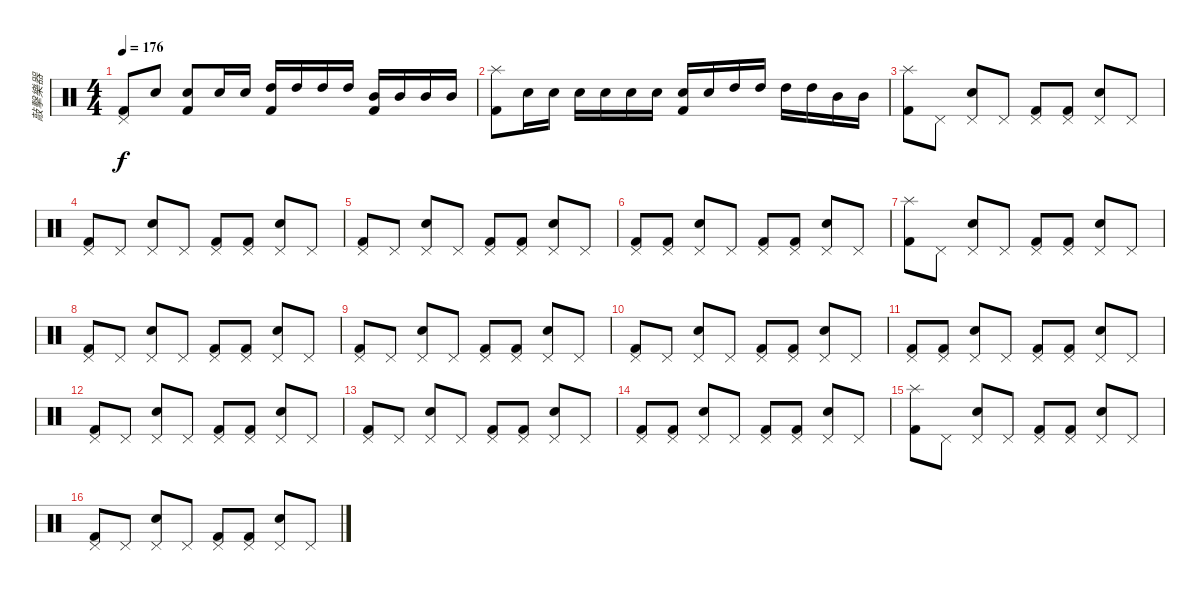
\track ("敲擊樂器" "敲擊樂器") {instrument percussion}
\staff {score}
\articulation defaults
\ts (4 4)
\tempo 176
\clef neutral
\ks c
("Pedal Hi-Hat (hit)" "Kick (hit) 2").8{dy f} "Snare (hit) 2".8 ("Kick (hit) 2" "Snare (hit) 2").8 "Snare (hit) 2".16 "Snare (hit) 2".16 ("High Tom (hit)" "Kick (hit) 2").16 "High Tom (hit)".16 "High Tom (hit)".16 "High Tom (hit)".16 ("Mid Tom (hit)" "Kick (hit) 2").16 "Mid Tom (hit)".16 "Mid Tom (hit)".16 "Mid Tom (hit)".16 |
("Splash (hit)" "Kick (hit) 2").8 "Snare (hit) 2".16 "Snare (hit) 2".16 "Snare (hit) 2".16 "Snare (hit) 2".16 "Snare (hit) 2".16 "Snare (hit) 2".16 ("Snare (hit) 2" "Kick (hit) 2").16 "Snare (hit) 2".16 "High Tom (hit)".16 "High Tom (hit)".16 "High Tom (hit)".16 "High Tom (hit)".16 "Mid Tom (hit)".16 "Mid Tom (hit)".16 |
("Splash (hit)" "Kick (hit) 2").8 "Pedal Hi-Hat (hit)".8 ("Snare (hit) 2" "Pedal Hi-Hat (hit)").8 "Pedal Hi-Hat (hit)".8 ("Pedal Hi-Hat (hit)" "Kick (hit) 2").8 ("Kick (hit) 2" "Pedal Hi-Hat (hit)").8 ("Pedal Hi-Hat (hit)" "Snare (hit) 2").8 "Pedal Hi-Hat (hit)".8 |
("Pedal Hi-Hat (hit)" "Kick (hit) 2").8 "Pedal Hi-Hat (hit)".8 ("Snare (hit) 2" "Pedal Hi-Hat (hit)").8 "Pedal Hi-Hat (hit)".8 ("Pedal Hi-Hat (hit)" "Kick (hit) 2").8 ("Kick (hit) 2" "Pedal Hi-Hat (hit)").8 ("Pedal Hi-Hat (hit)" "Snare (hit) 2").8 "Pedal Hi-Hat (hit)".8 |
("Pedal Hi-Hat (hit)" "Kick (hit) 2").8 "Pedal Hi-Hat (hit)".8 ("Snare (hit) 2" "Pedal Hi-Hat (hit)").8 "Pedal Hi-Hat (hit)".8 ("Pedal Hi-Hat (hit)" "Kick (hit) 2").8 ("Kick (hit) 2" "Pedal Hi-Hat (hit)").8 ("Pedal Hi-Hat (hit)" "Snare (hit) 2").8 "Pedal Hi-Hat (hit)".8 |
("Pedal Hi-Hat (hit)" "Kick (hit) 2").8 ("Pedal Hi-Hat (hit)" "Kick (hit) 2").8 ("Snare (hit) 2" "Pedal Hi-Hat (hit)").8 "Pedal Hi-Hat (hit)".8 ("Pedal Hi-Hat (hit)" "Kick (hit) 2").8 ("Kick (hit) 2" "Pedal Hi-Hat (hit)").8 ("Pedal Hi-Hat (hit)" "Snare (hit) 2").8 "Pedal Hi-Hat (hit)".8 |
("Splash (hit)" "Kick (hit) 2").8 "Pedal Hi-Hat (hit)".8 ("Snare (hit) 2" "Pedal Hi-Hat (hit)").8 "Pedal Hi-Hat (hit)".8 ("Pedal Hi-Hat (hit)" "Kick (hit) 2").8 ("Kick (hit) 2" "Pedal Hi-Hat (hit)").8 ("Pedal Hi-Hat (hit)" "Snare (hit) 2").8 "Pedal Hi-Hat (hit)".8 |
("Pedal Hi-Hat (hit)" "Kick (hit) 2").8 "Pedal Hi-Hat (hit)".8 ("Snare (hit) 2" "Pedal Hi-Hat (hit)").8 "Pedal Hi-Hat (hit)".8 ("Pedal Hi-Hat (hit)" "Kick (hit) 2").8 ("Kick (hit) 2" "Pedal Hi-Hat (hit)").8 ("Pedal Hi-Hat (hit)" "Snare (hit) 2").8 "Pedal Hi-Hat (hit)".8 |
("Pedal Hi-Hat (hit)" "Kick (hit) 2").8 "Pedal Hi-Hat (hit)".8 ("Snare (hit) 2" "Pedal Hi-Hat (hit)").8 "Pedal Hi-Hat (hit)".8 ("Pedal Hi-Hat (hit)" "Kick (hit) 2").8 ("Kick (hit) 2" "Pedal Hi-Hat (hit)").8 ("Pedal Hi-Hat (hit)" "Snare (hit) 2").8 "Pedal Hi-Hat (hit)".8 |
("Pedal Hi-Hat (hit)" "Kick (hit) 2").8 "Pedal Hi-Hat (hit)".8 ("Snare (hit) 2" "Pedal Hi-Hat (hit)").8 "Pedal Hi-Hat (hit)".8 ("Pedal Hi-Hat (hit)" "Kick (hit) 2").8 ("Kick (hit) 2" "Pedal Hi-Hat (hit)").8 ("Pedal Hi-Hat (hit)" "Snare (hit) 2").8 "Pedal Hi-Hat (hit)".8 |
("Pedal Hi-Hat (hit)" "Kick (hit) 2").8 ("Pedal Hi-Hat (hit)" "Kick (hit) 2").8 ("Snare (hit) 2" "Pedal Hi-Hat (hit)").8 "Pedal Hi-Hat (hit)".8 ("Pedal Hi-Hat (hit)" "Kick (hit) 2").8 ("Kick (hit) 2" "Pedal Hi-Hat (hit)").8 ("Pedal Hi-Hat (hit)" "Snare (hit) 2").8 "Pedal Hi-Hat (hit)".8 |
("Pedal Hi-Hat (hit)" "Kick (hit) 2").8 "Pedal Hi-Hat (hit)".8 ("Snare (hit) 2" "Pedal Hi-Hat (hit)").8 "Pedal Hi-Hat (hit)".8 ("Pedal Hi-Hat (hit)" "Kick (hit) 2").8 ("Kick (hit) 2" "Pedal Hi-Hat (hit)").8 ("Pedal Hi-Hat (hit)" "Snare (hit) 2").8 "Pedal Hi-Hat (hit)".8 |
("Pedal Hi-Hat (hit)" "Kick (hit) 2").8 "Pedal Hi-Hat (hit)".8 ("Snare (hit) 2" "Pedal Hi-Hat (hit)").8 "Pedal Hi-Hat (hit)".8 ("Pedal Hi-Hat (hit)" "Kick (hit) 2").8 ("Kick (hit) 2" "Pedal Hi-Hat (hit)").8 ("Pedal Hi-Hat (hit)" "Snare (hit) 2").8 "Pedal Hi-Hat (hit)".8 |
("Pedal Hi-Hat (hit)" "Kick (hit) 2").8 ("Pedal Hi-Hat (hit)" "Kick (hit) 2").8 ("Snare (hit) 2" "Pedal Hi-Hat (hit)").8 "Pedal Hi-Hat (hit)".8 ("Pedal Hi-Hat (hit)" "Kick (hit) 2").8 ("Kick (hit) 2" "Pedal Hi-Hat (hit)").8 ("Pedal Hi-Hat (hit)" "Snare (hit) 2").8 "Pedal Hi-Hat (hit)".8 |
("Splash (hit)" "Kick (hit) 2").8 "Pedal Hi-Hat (hit)".8 ("Snare (hit) 2" "Pedal Hi-Hat (hit)").8 "Pedal Hi-Hat (hit)".8 ("Pedal Hi-Hat (hit)" "Kick (hit) 2").8 ("Kick (hit) 2" "Pedal Hi-Hat (hit)").8 ("Pedal Hi-Hat (hit)" "Snare (hit) 2").8 "Pedal Hi-Hat (hit)".8 |
("Pedal Hi-Hat (hit)" "Kick (hit) 2").8 "Pedal Hi-Hat (hit)".8 ("Snare (hit) 2" "Pedal Hi-Hat (hit)").8 "Pedal Hi-Hat (hit)".8 ("Pedal Hi-Hat (hit)" "Kick (hit) 2").8 ("Kick (hit) 2" "Pedal Hi-Hat (hit)").8 ("Pedal Hi-Hat (hit)" "Snare (hit) 2").8 "Pedal Hi-Hat (hit)".8
